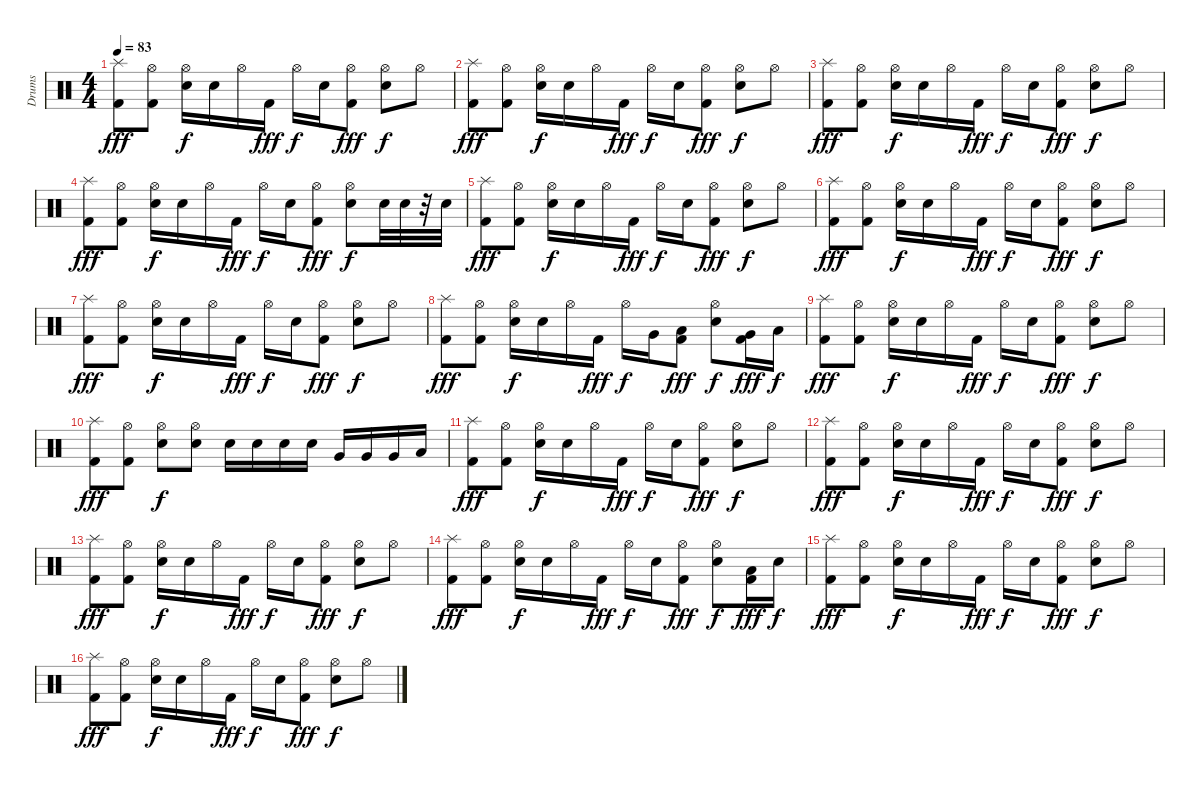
\track ("Drums" "Drums") {instrument percussion}
\staff {score}
\articulation defaults
\ts (4 4)
\tempo 83
\clef neutral
\ks c
("Splash (hit)" "Kick (hit) 2").8{dy fff} ("Hi-Hat (open)" "Kick (hit) 2").8 ("Hi-Hat (open)" "Snare (hit) 2").16{dy f} "Snare (hit) 2".16 "Hi-Hat (open)".16 "Kick (hit) 2".16{dy fff} "Hi-Hat (open)".16{dy f} "Snare (hit) 2".16 ("Hi-Hat (open)" "Kick (hit) 2").8{dy fff} ("Hi-Hat (open)" "Snare (hit) 2").8{dy f} "Hi-Hat (open)".8 |
("Splash (hit)" "Kick (hit) 2").8{dy fff} ("Hi-Hat (open)" "Kick (hit) 2").8 ("Hi-Hat (open)" "Snare (hit) 2").16{dy f} "Snare (hit) 2".16 "Hi-Hat (open)".16 "Kick (hit) 2".16{dy fff} "Hi-Hat (open)".16{dy f} "Snare (hit) 2".16 ("Hi-Hat (open)" "Kick (hit) 2").8{dy fff} ("Hi-Hat (open)" "Snare (hit) 2").8{dy f} "Hi-Hat (open)".8 |
("Splash (hit)" "Kick (hit) 2").8{dy fff} ("Hi-Hat (open)" "Kick (hit) 2").8 ("Hi-Hat (open)" "Snare (hit) 2").16{dy f} "Snare (hit) 2".16 "Hi-Hat (open)".16 "Kick (hit) 2".16{dy fff} "Hi-Hat (open)".16{dy f} "Snare (hit) 2".16 ("Hi-Hat (open)" "Kick (hit) 2").8{dy fff} ("Hi-Hat (open)" "Snare (hit) 2").8{dy f} "Hi-Hat (open)".8 |
("Splash (hit)" "Kick (hit) 2").8{dy fff} ("Hi-Hat (open)" "Kick (hit) 2").8 ("Hi-Hat (open)" "Snare (hit) 2").16{dy f} "Snare (hit) 2".16 "Hi-Hat (open)".16 "Kick (hit) 2".16{dy fff} "Hi-Hat (open)".16{dy f} "Snare (hit) 2".16 ("Hi-Hat (open)" "Kick (hit) 2").8{dy fff} ("Hi-Hat (open)" "Snare (hit) 2").8{dy f} "Snare (hit) 2".32 "Snare (hit) 2".32 r.32 "Snare (hit) 2".32 |
("Splash (hit)" "Kick (hit) 2").8{dy fff} ("Hi-Hat (open)" "Kick (hit) 2").8 ("Hi-Hat (open)" "Snare (hit) 2").16{dy f} "Snare (hit) 2".16 "Hi-Hat (open)".16 "Kick (hit) 2".16{dy fff} "Hi-Hat (open)".16{dy f} "Snare (hit) 2".16 ("Hi-Hat (open)" "Kick (hit) 2").8{dy fff} ("Hi-Hat (open)" "Snare (hit) 2").8{dy f} "Hi-Hat (open)".8 |
("Splash (hit)" "Kick (hit) 2").8{dy fff} ("Hi-Hat (open)" "Kick (hit) 2").8 ("Hi-Hat (open)" "Snare (hit) 2").16{dy f} "Snare (hit) 2".16 "Hi-Hat (open)".16 "Kick (hit) 2".16{dy fff} "Hi-Hat (open)".16{dy f} "Snare (hit) 2".16 ("Hi-Hat (open)" "Kick (hit) 2").8{dy fff} ("Hi-Hat (open)" "Snare (hit) 2").8{dy f} "Hi-Hat (open)".8 |
("Splash (hit)" "Kick (hit) 2").8{dy fff} ("Hi-Hat (open)" "Kick (hit) 2").8 ("Hi-Hat (open)" "Snare (hit) 2").16{dy f} "Snare (hit) 2".16 "Hi-Hat (open)".16 "Kick (hit) 2".16{dy fff} "Hi-Hat (open)".16{dy f} "Snare (hit) 2".16 ("Hi-Hat (open)" "Kick (hit) 2").8{dy fff} ("Hi-Hat (open)" "Snare (hit) 2").8{dy f} "Hi-Hat (open)".8 |
("Splash (hit)" "Kick (hit) 2").8{dy fff} ("Hi-Hat (open)" "Kick (hit) 2").8 ("Hi-Hat (open)" "Snare (hit) 2").16{dy f} "Snare (hit) 2".16 "Hi-Hat (open)".16 "Kick (hit) 2".16{dy fff} "Hi-Hat (open)".16{dy f} "Very Low Tom (hit)".16 ("Low Floor Tom (hit)" "Kick (hit) 2").8{dy fff} ("Hi-Hat (open)" "Snare (hit) 2").8{dy f} ("Very Low Tom (hit)" "Kick (hit) 2").16{dy fff} "Low Floor Tom (hit)".16{dy f} |
("Splash (hit)" "Kick (hit) 2").8{dy fff} ("Hi-Hat (open)" "Kick (hit) 2").8 ("Hi-Hat (open)" "Snare (hit) 2").16{dy f} "Snare (hit) 2".16 "Hi-Hat (open)".16 "Kick (hit) 2".16{dy fff} "Hi-Hat (open)".16{dy f} "Snare (hit) 2".16 ("Hi-Hat (open)" "Kick (hit) 2").8{dy fff} ("Hi-Hat (open)" "Snare (hit) 2").8{dy f} "Hi-Hat (open)".8 |
("Splash (hit)" "Kick (hit) 2").8{dy fff} ("Hi-Hat (open)" "Kick (hit) 2").8 ("Hi-Hat (open)" "Snare (hit) 2").8{dy f} ("Hi-Hat (open)" "Snare (hit) 2").8 "Snare (hit) 2".16 "Snare (hit) 2".16 "Snare (hit) 2".16 "Snare (hit) 2".16 "Very Low Tom (hit)".16 "Very Low Tom (hit)".16 "Very Low Tom (hit)".16 "Low Floor Tom (hit)".16 |
("Splash (hit)" "Kick (hit) 2").8{dy fff} ("Hi-Hat (open)" "Kick (hit) 2").8 ("Hi-Hat (open)" "Snare (hit) 2").16{dy f} "Snare (hit) 2".16 "Hi-Hat (open)".16 "Kick (hit) 2".16{dy fff} "Hi-Hat (open)".16{dy f} "Snare (hit) 2".16 ("Hi-Hat (open)" "Kick (hit) 2").8{dy fff} ("Hi-Hat (open)" "Snare (hit) 2").8{dy f} "Hi-Hat (open)".8 |
("Splash (hit)" "Kick (hit) 2").8{dy fff} ("Hi-Hat (open)" "Kick (hit) 2").8 ("Hi-Hat (open)" "Snare (hit) 2").16{dy f} "Snare (hit) 2".16 "Hi-Hat (open)".16 "Kick (hit) 2".16{dy fff} "Hi-Hat (open)".16{dy f} "Snare (hit) 2".16 ("Hi-Hat (open)" "Kick (hit) 2").8{dy fff} ("Hi-Hat (open)" "Snare (hit) 2").8{dy f} "Hi-Hat (open)".8 |
("Splash (hit)" "Kick (hit) 2").8{dy fff} ("Hi-Hat (open)" "Kick (hit) 2").8 ("Hi-Hat (open)" "Snare (hit) 2").16{dy f} "Snare (hit) 2".16 "Hi-Hat (open)".16 "Kick (hit) 2".16{dy fff} "Hi-Hat (open)".16{dy f} "Snare (hit) 2".16 ("Hi-Hat (open)" "Kick (hit) 2").8{dy fff} ("Hi-Hat (open)" "Snare (hit) 2").8{dy f} "Hi-Hat (open)".8 |
("Splash (hit)" "Kick (hit) 2").8{dy fff} ("Hi-Hat (open)" "Kick (hit) 2").8 ("Hi-Hat (open)" "Snare (hit) 2").16{dy f} "Snare (hit) 2".16 "Hi-Hat (open)".16 "Kick (hit) 2".16{dy fff} "Hi-Hat (open)".16{dy f} "Snare (hit) 2".16 ("Hi-Hat (open)" "Kick (hit) 2").8{dy fff} ("Hi-Hat (open)" "Snare (hit) 2").8{dy f} ("Low Floor Tom (hit)" "Kick (hit) 2").16{dy fff} "Snare (hit) 2".16{dy f} |
("Splash (hit)" "Kick (hit) 2").8{dy fff} ("Hi-Hat (open)" "Kick (hit) 2").8 ("Hi-Hat (open)" "Snare (hit) 2").16{dy f} "Snare (hit) 2".16 "Hi-Hat (open)".16 "Kick (hit) 2".16{dy fff} "Hi-Hat (open)".16{dy f} "Snare (hit) 2".16 ("Hi-Hat (open)" "Kick (hit) 2").8{dy fff} ("Hi-Hat (open)" "Snare (hit) 2").8{dy f} "Hi-Hat (open)".8 |
("Splash (hit)" "Kick (hit) 2").8{dy fff} ("Hi-Hat (open)" "Kick (hit) 2").8 ("Hi-Hat (open)" "Snare (hit) 2").16{dy f} "Snare (hit) 2".16 "Hi-Hat (open)".16 "Kick (hit) 2".16{dy fff} "Hi-Hat (open)".16{dy f} "Snare (hit) 2".16 ("Hi-Hat (open)" "Kick (hit) 2").8{dy fff} ("Hi-Hat (open)" "Snare (hit) 2").8{dy f} "Hi-Hat (open)".8
